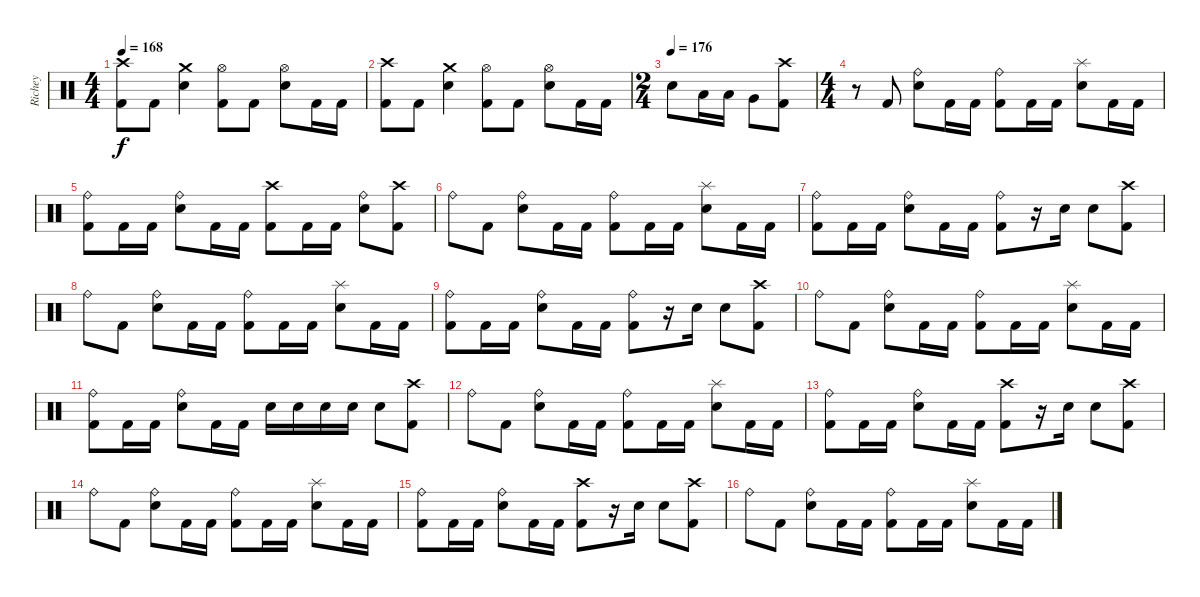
\track ("Richey" "Richey") {instrument percussion}
\staff {score}
\articulation defaults
\ts (4 4)
\tempo 168
\clef neutral
\ks c
("Crash high (hit)" "Kick (hit) 2").8{dy f} "Kick (hit) 2".8 ("Crash medium (hit)" "Snare (hit) 2").4 ("Hi-Hat (open)" "Kick (hit) 2").8 "Kick (hit) 2".8 ("Hi-Hat (open)" "Snare (hit) 2").8 "Kick (hit) 2".16 "Kick (hit) 2".16 |
("Crash high (hit)" "Kick (hit) 2").8 "Kick (hit) 2".8 ("Crash medium (hit)" "Snare (hit) 2").4 ("Hi-Hat (open)" "Kick (hit) 2").8 "Kick (hit) 2".8 ("Hi-Hat (open)" "Snare (hit) 2").8 "Kick (hit) 2".16 "Kick (hit) 2".16 |
\ts (2 4)
\tempo (176)
"Snare (hit) 2".8 "Low Tom (hit)".16 "Low Tom (hit)".16 "Very Low Tom (hit)".8 ("Crash high (hit)" "Kick (hit) 2").8 |
\ts (4 4)
r.8 "Kick (hit) 2".8 ("Ride (bell)" "Snare (hit) 2").8 "Kick (hit) 2".16 "Kick (hit) 2".16 ("Ride (bell)" "Kick (hit) 2").8 "Kick (hit) 2".16 "Kick (hit) 2".16 ("Splash (hit)" "Snare (hit) 2").8 "Kick (hit) 2".16 "Kick (hit) 2".16 |
("Ride (bell)" "Kick (hit) 2").8 "Kick (hit) 2".16 "Kick (hit) 2".16 ("Ride (bell)" "Snare (hit) 2").8 "Kick (hit) 2".16 "Kick (hit) 2".16 ("Crash high (hit)" "Kick (hit) 2").8 "Kick (hit) 2".16 "Kick (hit) 2".16 ("Ride (bell)" "Snare (hit) 2").8 ("Crash high (hit)" "Kick (hit) 2").8 |
"Ride (bell)".8 "Kick (hit) 2".8 ("Ride (bell)" "Snare (hit) 2").8 "Kick (hit) 2".16 "Kick (hit) 2".16 ("Ride (bell)" "Kick (hit) 2").8 "Kick (hit) 2".16 "Kick (hit) 2".16 ("Splash (hit)" "Snare (hit) 2").8 "Kick (hit) 2".16 "Kick (hit) 2".16 |
("Ride (bell)" "Kick (hit) 2").8 "Kick (hit) 2".16 "Kick (hit) 2".16 ("Ride (bell)" "Snare (hit) 2").8 "Kick (hit) 2".16 "Kick (hit) 2".16 ("Ride (bell)" "Kick (hit) 2").8 r.16 "Snare (hit) 2".16 "Snare (hit) 2".8 ("Crash high (hit)" "Kick (hit) 2").8 |
"Ride (bell)".8 "Kick (hit) 2".8 ("Ride (bell)" "Snare (hit) 2").8 "Kick (hit) 2".16 "Kick (hit) 2".16 ("Ride (bell)" "Kick (hit) 2").8 "Kick (hit) 2".16 "Kick (hit) 2".16 ("Splash (hit)" "Snare (hit) 2").8 "Kick (hit) 2".16 "Kick (hit) 2".16 |
("Ride (bell)" "Kick (hit) 2").8 "Kick (hit) 2".16 "Kick (hit) 2".16 ("Ride (bell)" "Snare (hit) 2").8 "Kick (hit) 2".16 "Kick (hit) 2".16 ("Ride (bell)" "Kick (hit) 2").8 r.16 "Snare (hit) 2".16 "Snare (hit) 2".8 ("Crash high (hit)" "Kick (hit) 2").8 |
"Ride (bell)".8 "Kick (hit) 2".8 ("Ride (bell)" "Snare (hit) 2").8 "Kick (hit) 2".16 "Kick (hit) 2".16 ("Ride (bell)" "Kick (hit) 2").8 "Kick (hit) 2".16 "Kick (hit) 2".16 ("Splash (hit)" "Snare (hit) 2").8 "Kick (hit) 2".16 "Kick (hit) 2".16 |
("Ride (bell)" "Kick (hit) 2").8 "Kick (hit) 2".16 "Kick (hit) 2".16 ("Ride (bell)" "Snare (hit) 2").8 "Kick (hit) 2".16 "Kick (hit) 2".16 "Snare (hit) 2".16 "Snare (hit) 2".16 "Snare (hit) 2".16 "Snare (hit) 2".16 "Snare (hit) 2".8 ("Crash high (hit)" "Kick (hit) 2").8 |
"Ride (bell)".8 "Kick (hit) 2".8 ("Ride (bell)" "Snare (hit) 2").8 "Kick (hit) 2".16 "Kick (hit) 2".16 ("Ride (bell)" "Kick (hit) 2").8 "Kick (hit) 2".16 "Kick (hit) 2".16 ("Splash (hit)" "Snare (hit) 2").8 "Kick (hit) 2".16 "Kick (hit) 2".16 |
("Ride (bell)" "Kick (hit) 2").8 "Kick (hit) 2".16 "Kick (hit) 2".16 ("Ride (bell)" "Snare (hit) 2").8 "Kick (hit) 2".16 "Kick (hit) 2".16 ("Crash high (hit)" "Kick (hit) 2").8 r.16 "Snare (hit) 2".16 "Snare (hit) 2".8 ("Crash high (hit)" "Kick (hit) 2").8 |
"Ride (bell)".8 "Kick (hit) 2".8 ("Ride (bell)" "Snare (hit) 2").8 "Kick (hit) 2".16 "Kick (hit) 2".16 ("Ride (bell)" "Kick (hit) 2").8 "Kick (hit) 2".16 "Kick (hit) 2".16 ("Splash (hit)" "Snare (hit) 2").8 "Kick (hit) 2".16 "Kick (hit) 2".16 |
("Ride (bell)" "Kick (hit) 2").8 "Kick (hit) 2".16 "Kick (hit) 2".16 ("Ride (bell)" "Snare (hit) 2").8 "Kick (hit) 2".16 "Kick (hit) 2".16 ("Crash high (hit)" "Kick (hit) 2").8 r.16 "Snare (hit) 2".16 "Snare (hit) 2".8 ("Crash high (hit)" "Kick (hit) 2").8 |
"Ride (bell)".8 "Kick (hit) 2".8 ("Ride (bell)" "Snare (hit) 2").8 "Kick (hit) 2".16 "Kick (hit) 2".16 ("Ride (bell)" "Kick (hit) 2").8 "Kick (hit) 2".16 "Kick (hit) 2".16 ("Splash (hit)" "Snare (hit) 2").8 "Kick (hit) 2".16 "Kick (hit) 2".16
